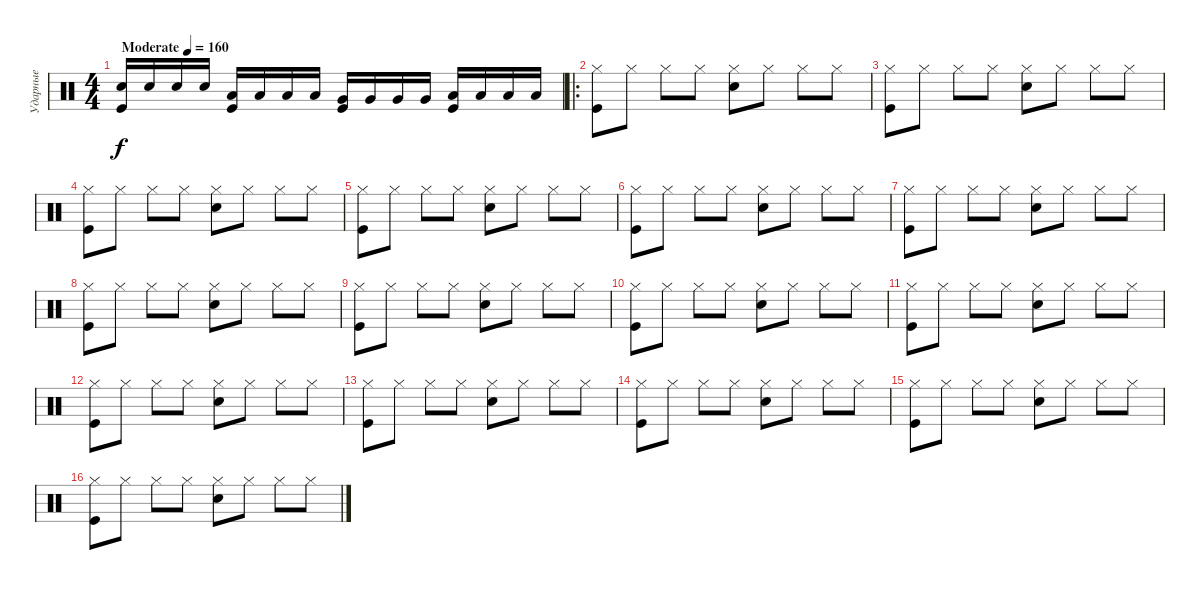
\track ("Ударные" "Ударные") {instrument percussion}
\staff {score}
\articulation defaults
\ts (4 4)
\tempo (160 "Moderate")
\clef neutral
\ks c
("Snare (hit) 2" "Kick (hit)").16{dy f} "Snare (hit) 2".16 "Snare (hit) 2".16 "Snare (hit) 2".16 ("Low Floor Tom (hit)" "Kick (hit)").16 "Low Floor Tom (hit)".16 "Low Floor Tom (hit)".16 "Low Floor Tom (hit)".16 ("Very Low Tom (hit)" "Kick (hit)").16 "Very Low Tom (hit)".16 "Very Low Tom (hit)".16 "Very Low Tom (hit)".16 ("Low Tom (hit)" "Kick (hit)").16 "Low Tom (hit)".16 "Low Tom (hit)".16 "Low Tom (hit)".16 |
\ro
("Hi-Hat (closed)" "Kick (hit)").8 "Hi-Hat (closed)".8 "Hi-Hat (closed)".8 "Hi-Hat (closed)".8 ("Hi-Hat (closed)" "Snare (hit) 2").8 "Hi-Hat (closed)".8 "Hi-Hat (closed)".8 "Hi-Hat (closed)".8 |
("Hi-Hat (closed)" "Kick (hit)").8 "Hi-Hat (closed)".8 "Hi-Hat (closed)".8 "Hi-Hat (closed)".8 ("Hi-Hat (closed)" "Snare (hit) 2").8 "Hi-Hat (closed)".8 "Hi-Hat (closed)".8 "Hi-Hat (closed)".8 |
("Hi-Hat (closed)" "Kick (hit)").8 "Hi-Hat (closed)".8 "Hi-Hat (closed)".8 "Hi-Hat (closed)".8 ("Hi-Hat (closed)" "Snare (hit) 2").8 "Hi-Hat (closed)".8 "Hi-Hat (closed)".8 "Hi-Hat (closed)".8 |
("Hi-Hat (closed)" "Kick (hit)").8 "Hi-Hat (closed)".8 "Hi-Hat (closed)".8 "Hi-Hat (closed)".8 ("Hi-Hat (closed)" "Snare (hit) 2").8 "Hi-Hat (closed)".8 "Hi-Hat (closed)".8 "Hi-Hat (closed)".8 |
("Hi-Hat (closed)" "Kick (hit)").8 "Hi-Hat (closed)".8 "Hi-Hat (closed)".8 "Hi-Hat (closed)".8 ("Hi-Hat (closed)" "Snare (hit) 2").8 "Hi-Hat (closed)".8 "Hi-Hat (closed)".8 "Hi-Hat (closed)".8 |
("Hi-Hat (closed)" "Kick (hit)").8 "Hi-Hat (closed)".8 "Hi-Hat (closed)".8 "Hi-Hat (closed)".8 ("Hi-Hat (closed)" "Snare (hit) 2").8 "Hi-Hat (closed)".8 "Hi-Hat (closed)".8 "Hi-Hat (closed)".8 |
("Hi-Hat (closed)" "Kick (hit)").8 "Hi-Hat (closed)".8 "Hi-Hat (closed)".8 "Hi-Hat (closed)".8 ("Hi-Hat (closed)" "Snare (hit) 2").8 "Hi-Hat (closed)".8 "Hi-Hat (closed)".8 "Hi-Hat (closed)".8 |
("Hi-Hat (closed)" "Kick (hit)").8 "Hi-Hat (closed)".8 "Hi-Hat (closed)".8 "Hi-Hat (closed)".8 ("Hi-Hat (closed)" "Snare (hit) 2").8 "Hi-Hat (closed)".8 "Hi-Hat (closed)".8 "Hi-Hat (closed)".8 |
("Hi-Hat (closed)" "Kick (hit)").8 "Hi-Hat (closed)".8 "Hi-Hat (closed)".8 "Hi-Hat (closed)".8 ("Hi-Hat (closed)" "Snare (hit) 2").8 "Hi-Hat (closed)".8 "Hi-Hat (closed)".8 "Hi-Hat (closed)".8 |
("Hi-Hat (closed)" "Kick (hit)").8 "Hi-Hat (closed)".8 "Hi-Hat (closed)".8 "Hi-Hat (closed)".8 ("Hi-Hat (closed)" "Snare (hit) 2").8 "Hi-Hat (closed)".8 "Hi-Hat (closed)".8 "Hi-Hat (closed)".8 |
("Hi-Hat (closed)" "Kick (hit)").8 "Hi-Hat (closed)".8 "Hi-Hat (closed)".8 "Hi-Hat (closed)".8 ("Hi-Hat (closed)" "Snare (hit) 2").8 "Hi-Hat (closed)".8 "Hi-Hat (closed)".8 "Hi-Hat (closed)".8 |
("Hi-Hat (closed)" "Kick (hit)").8 "Hi-Hat (closed)".8 "Hi-Hat (closed)".8 "Hi-Hat (closed)".8 ("Hi-Hat (closed)" "Snare (hit) 2").8 "Hi-Hat (closed)".8 "Hi-Hat (closed)".8 "Hi-Hat (closed)".8 |
("Hi-Hat (closed)" "Kick (hit)").8 "Hi-Hat (closed)".8 "Hi-Hat (closed)".8 "Hi-Hat (closed)".8 ("Hi-Hat (closed)" "Snare (hit) 2").8 "Hi-Hat (closed)".8 "Hi-Hat (closed)".8 "Hi-Hat (closed)".8 |
("Hi-Hat (closed)" "Kick (hit)").8 "Hi-Hat (closed)".8 "Hi-Hat (closed)".8 "Hi-Hat (closed)".8 ("Hi-Hat (closed)" "Snare (hit) 2").8 "Hi-Hat (closed)".8 "Hi-Hat (closed)".8 "Hi-Hat (closed)".8 |
("Hi-Hat (closed)" "Kick (hit)").8 "Hi-Hat (closed)".8 "Hi-Hat (closed)".8 "Hi-Hat (closed)".8 ("Hi-Hat (closed)" "Snare (hit) 2").8 "Hi-Hat (closed)".8 "Hi-Hat (closed)".8 "Hi-Hat (closed)".8
